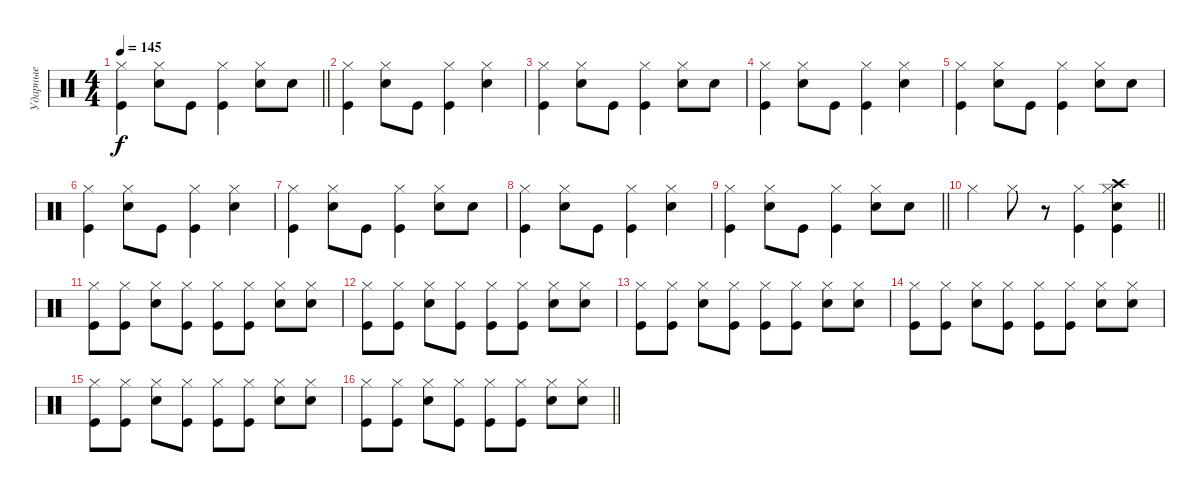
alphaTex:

\track ("Ударные" "Ударные") {instrument percussion bank 125}
\staff {score}
\articulation defaults
\ts (4 4)
\tempo 145
\clef neutral
\barLineRight lightlight
\ks c
("Hi-Hat (closed)" "Kick (hit)").4{dy f} ("Hi-Hat (closed)" "Snare (hit) 2").8 "Kick (hit)".8 ("Hi-Hat (closed)" "Kick (hit)").4 ("Hi-Hat (closed)" "Snare (hit) 2").8 "Snare (hit) 2".8 |
("Hi-Hat (closed)" "Kick (hit)").4 ("Hi-Hat (closed)" "Snare (hit) 2").8 "Kick (hit)".8 ("Hi-Hat (closed)" "Kick (hit)").4 ("Hi-Hat (closed)" "Snare (hit) 2").4 |
("Hi-Hat (closed)" "Kick (hit)").4 ("Hi-Hat (closed)" "Snare (hit) 2").8 "Kick (hit)".8 ("Hi-Hat (closed)" "Kick (hit)").4 ("Hi-Hat (closed)" "Snare (hit) 2").8 "Snare (hit) 2".8 |
("Hi-Hat (closed)" "Kick (hit)").4 ("Hi-Hat (closed)" "Snare (hit) 2").8 "Kick (hit)".8 ("Hi-Hat (closed)" "Kick (hit)").4 ("Hi-Hat (closed)" "Snare (hit) 2").4 |
("Hi-Hat (closed)" "Kick (hit)").4 ("Hi-Hat (closed)" "Snare (hit) 2").8 "Kick (hit)".8 ("Hi-Hat (closed)" "Kick (hit)").4 ("Hi-Hat (closed)" "Snare (hit) 2").8 "Snare (hit) 2".8 |
("Hi-Hat (closed)" "Kick (hit)").4 ("Hi-Hat (closed)" "Snare (hit) 2").8 "Kick (hit)".8 ("Hi-Hat (closed)" "Kick (hit)").4 ("Hi-Hat (closed)" "Snare (hit) 2").4 |
("Hi-Hat (closed)" "Kick (hit)").4 ("Hi-Hat (closed)" "Snare (hit) 2").8 "Kick (hit)".8 ("Hi-Hat (closed)" "Kick (hit)").4 ("Hi-Hat (closed)" "Snare (hit) 2").8 "Snare (hit) 2".8 |
("Hi-Hat (closed)" "Kick (hit)").4 ("Hi-Hat (closed)" "Snare (hit) 2").8 "Kick (hit)".8 ("Hi-Hat (closed)" "Kick (hit)").4 ("Hi-Hat (closed)" "Snare (hit) 2").4 |
\barLineRight lightlight
("Hi-Hat (closed)" "Kick (hit)").4 ("Hi-Hat (closed)" "Snare (hit) 2").8 "Kick (hit)".8 ("Hi-Hat (closed)" "Kick (hit)").4 ("Hi-Hat (closed)" "Snare (hit) 2").8 "Snare (hit) 2".8 |
\barLineRight lightlight "Hi-Hat (closed)".4 "Hi-Hat (closed)".8
r.8 ("Hi-Hat (closed)" "Kick (hit)").4 ("Hi-Hat (closed)" "Crash high (hit)" "Snare (hit) 2" "Kick (hit)").4 |
("Hi-Hat (closed)" "Kick (hit)").8 ("Hi-Hat (closed)" "Kick (hit)").8 ("Hi-Hat (closed)" "Snare (hit) 2").8 ("Hi-Hat (closed)" "Kick (hit)").8 ("Hi-Hat (closed)" "Kick (hit)").8 ("Hi-Hat (closed)" "Kick (hit)").8 ("Hi-Hat (closed)" "Snare (hit) 2").8 ("Hi-Hat (closed)" "Snare (hit) 2").8 |
("Hi-Hat (closed)" "Kick (hit)").8 ("Hi-Hat (closed)" "Kick (hit)").8 ("Hi-Hat (closed)" "Snare (hit) 2").8 ("Hi-Hat (closed)" "Kick (hit)").8 ("Hi-Hat (closed)" "Kick (hit)").8 ("Hi-Hat (closed)" "Kick (hit)").8 ("Hi-Hat (closed)" "Snare (hit) 2").8 ("Hi-Hat (closed)" "Snare (hit) 2").8 |
("Hi-Hat (closed)" "Kick (hit)").8 ("Hi-Hat (closed)" "Kick (hit)").8 ("Hi-Hat (closed)" "Snare (hit) 2").8 ("Hi-Hat (closed)" "Kick (hit)").8 ("Hi-Hat (closed)" "Kick (hit)").8 ("Hi-Hat (closed)" "Kick (hit)").8 ("Hi-Hat (closed)" "Snare (hit) 2").8 ("Hi-Hat (closed)" "Snare (hit) 2").8 |
("Hi-Hat (closed)" "Kick (hit)").8 ("Hi-Hat (closed)" "Kick (hit)").8 ("Hi-Hat (closed)" "Snare (hit) 2").8 ("Hi-Hat (closed)" "Kick (hit)").8 ("Hi-Hat (closed)" "Kick (hit)").8 ("Hi-Hat (closed)" "Kick (hit)").8 ("Hi-Hat (closed)" "Snare (hit) 2").8 ("Hi-Hat (closed)" "Snare (hit) 2").8 |
("Hi-Hat (closed)" "Kick (hit)").8 ("Hi-Hat (closed)" "Kick (hit)").8 ("Hi-Hat (closed)" "Snare (hit) 2").8 ("Hi-Hat (closed)" "Kick (hit)").8 ("Hi-Hat (closed)" "Kick (hit)").8 ("Hi-Hat (closed)" "Kick (hit)").8 ("Hi-Hat (closed)" "Snare (hit) 2").8 ("Hi-Hat (closed)" "Snare (hit) 2").8 |
\barLineRight lightlight
("Hi-Hat (closed)" "Kick (hit)").8 ("Hi-Hat (closed)" "Kick (hit)").8 ("Hi-Hat (closed)" "Snare (hit) 2").8 ("Hi-Hat (closed)" "Kick (hit)").8 ("Hi-Hat (closed)" "Kick (hit)").8 ("Hi-Hat (closed)" "Kick (hit)").8 ("Hi-Hat (closed)" "Snare (hit) 2").8 ("Hi-Hat (closed)" "Snare (hit) 2").8
